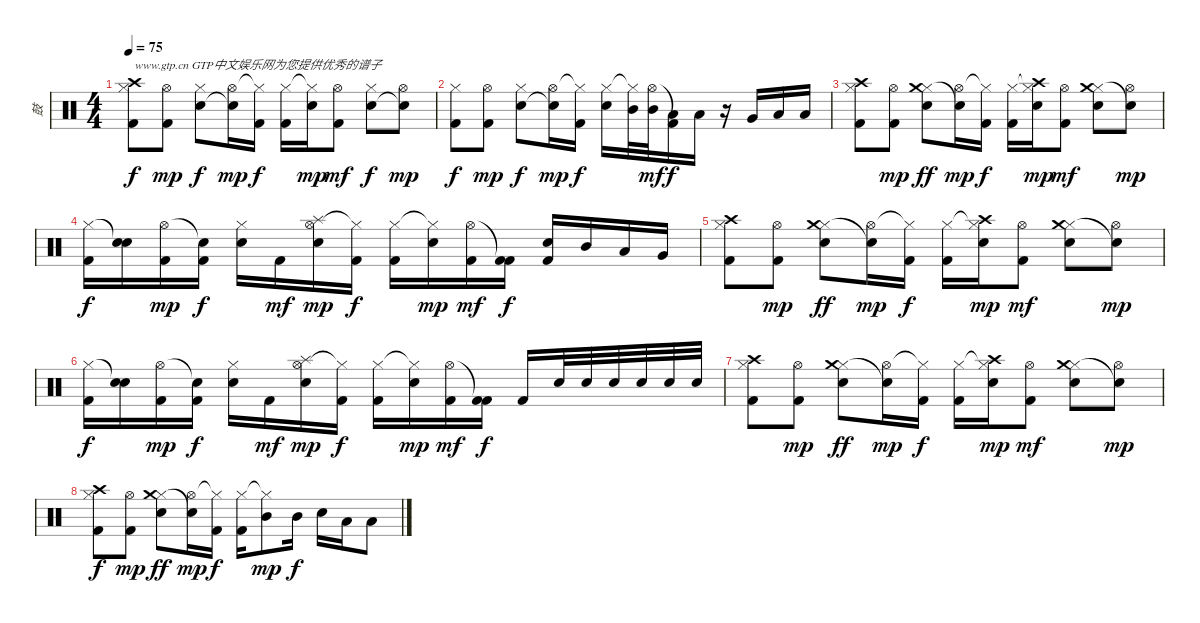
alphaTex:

\track ("鼓" "鼓") {instrument percussion}
\staff {score}
\articulation defaults
\ts (4 4)
\tempo 75
\clef neutral
\ks c
("Hi-Hat (closed)" "Crash high (hit)" "Kick (hit) 2").8{txt "www.gtp.cn GTP中文娱乐网为您提供优秀的谱子" dy f} ("Hi-Hat (open)" "Kick (hit) 2").8{dy mp} ("Hi-Hat (closed)" "Electric Snare (hit)").8{dy f} ("Hi-Hat (open)" "Snare (hit)"{t}).16{dy mp} ("Hi-Hat (closed)"{t} "Kick (hit) 2").16{dy f} ("Hi-Hat (closed)" "Kick (hit) 2").16 ("Hi-Hat (closed)"{t} "Electric Snare (hit)").16{dy mp} ("Hi-Hat (open)" "Kick (hit) 2").8{dy mf} ("Hi-Hat (closed)" "Electric Snare (hit)").8{dy f} ("Hi-Hat (open)" "Snare (hit)"{t}).8{dy mp} |
("Hi-Hat (closed)" "Kick (hit) 2").8{dy f} ("Hi-Hat (open)" "Kick (hit) 2").8{dy mp} ("Hi-Hat (closed)" "Electric Snare (hit)").8{dy f} ("Hi-Hat (open)" "Snare (hit)"{t}).16{dy mp} ("Hi-Hat (closed)"{t} "Kick (hit) 2").16{dy f} ("Hi-Hat (closed)" "Electric Snare (hit)").16 ("Hi-Hat (closed)"{t} "Mid Tom (hit)").32 ("Hi-Hat (open)" "Mid Tom (hit)").32{dy mf} ("Kick (hit) 2"{t} "Low Tom (hit)").16{dy f} "Low Tom (hit)".16 r.16 "Very Low Tom (hit)".16 "Low Floor Tom (hit)".16 "Low Floor Tom (hit)".16 |
("Hi-Hat (closed)" "Crash high (hit)" "Kick (hit) 2").8 ("Hi-Hat (open)" "Kick (hit) 2").8{dy mp} ("Hi-Hat (closed)" "Crash medium (hit)" "Electric Snare (hit)").8{dy ff} ("Hi-Hat (open)" "Snare (hit)"{t}).16{dy mp} ("Hi-Hat (closed)"{t} "Kick (hit) 2").16{dy f} ("Hi-Hat (closed)" "Kick (hit) 2").16 ("Hi-Hat (closed)"{t} "Crash high (hit)" "Electric Snare (hit)").16{dy mp} ("Hi-Hat (open)" "Kick (hit) 2").8{dy mf} ("Hi-Hat (closed)" "Crash medium (hit)" "Electric Snare (hit)").8 ("Hi-Hat (open)" "Snare (hit)"{t}).8{dy mp} |
("Hi-Hat (closed)" "Kick (hit) 2").16{dy f} ("Snare (hit)"{t} "Electric Snare (hit)").16 ("Hi-Hat (open)" "Kick (hit) 2").16{dy mp} ("Snare (hit)"{t} "Kick (hit) 2").16{dy f} ("Hi-Hat (closed)" "Electric Snare (hit)").16 "Kick (hit) 2".16{dy mf} ("Hi-Hat (open)" "Splash (hit)" "Electric Snare (hit)").16{dy mp} ("Hi-Hat (closed)"{t} "Kick (hit) 2").16{dy f} ("Hi-Hat (closed)" "Kick (hit) 2").16 ("Hi-Hat (closed)"{t} "Electric Snare (hit)").16{dy mp} ("Hi-Hat (open)" "Kick (hit) 2").16{dy mf} ("Kick (hit) 2"{t} "Kick (hit) 2").16{dy f} ("Electric Snare (hit)" "Kick (hit) 2").16 "Mid Tom (hit)".16 "Low Tom (hit)".16 "Very Low Tom (hit)".16 |
("Hi-Hat (closed)" "Crash high (hit)" "Kick (hit) 2").8 ("Hi-Hat (open)" "Kick (hit) 2").8{dy mp} ("Hi-Hat (closed)" "Crash medium (hit)" "Electric Snare (hit)").8{dy ff} ("Hi-Hat (open)" "Snare (hit)"{t}).16{dy mp} ("Hi-Hat (closed)"{t} "Kick (hit) 2").16{dy f} ("Hi-Hat (closed)" "Kick (hit) 2").16 ("Hi-Hat (closed)"{t} "Crash high (hit)" "Electric Snare (hit)").16{dy mp} ("Hi-Hat (open)" "Kick (hit) 2").8{dy mf} ("Hi-Hat (closed)" "Crash medium (hit)" "Electric Snare (hit)").8 ("Hi-Hat (open)" "Snare (hit)"{t}).8{dy mp} |
("Hi-Hat (closed)" "Kick (hit) 2").16{dy f} ("Snare (hit)"{t} "Electric Snare (hit)").16 ("Hi-Hat (open)" "Kick (hit) 2").16{dy mp} ("Snare (hit)"{t} "Kick (hit) 2").16{dy f} ("Hi-Hat (closed)" "Electric Snare (hit)").16 "Kick (hit) 2".16{dy mf} ("Hi-Hat (open)" "Splash (hit)" "Electric Snare (hit)").16{dy mp} ("Hi-Hat (closed)"{t} "Kick (hit) 2").16{dy f} ("Hi-Hat (closed)" "Kick (hit) 2").16 ("Hi-Hat (closed)"{t} "Electric Snare (hit)").16{dy mp} ("Hi-Hat (open)" "Kick (hit) 2").16{dy mf} ("Kick (hit) 2"{t} "Kick (hit) 2").16{dy f} "Kick (hit) 2".16 "Electric Snare (hit)".32 "Electric Snare (hit)".32 "Electric Snare (hit)".32 "Electric Snare (hit)".32 "Electric Snare (hit)".32 "Electric Snare (hit)".32 |
("Hi-Hat (closed)" "Crash high (hit)" "Kick (hit) 2").8 ("Hi-Hat (open)" "Kick (hit) 2").8{dy mp} ("Hi-Hat (closed)" "Crash medium (hit)" "Electric Snare (hit)").8{dy ff} ("Hi-Hat (open)" "Snare (hit)"{t}).16{dy mp} ("Hi-Hat (closed)"{t} "Kick (hit) 2").16{dy f} ("Hi-Hat (closed)" "Kick (hit) 2").16 ("Hi-Hat (closed)"{t} "Crash high (hit)" "Electric Snare (hit)").16{dy mp} ("Hi-Hat (open)" "Kick (hit) 2").8{dy mf} ("Hi-Hat (closed)" "Crash medium (hit)" "Electric Snare (hit)").8 ("Hi-Hat (open)" "Snare (hit)"{t}).8{dy mp} |
("Hi-Hat (closed)" "Crash high (hit)" "Kick (hit) 2").8{dy f} ("Hi-Hat (open)" "Kick (hit) 2").8{dy mp} ("Hi-Hat (closed)" "Crash medium (hit)" "Electric Snare (hit)").8{dy ff} ("Hi-Hat (open)" "Snare (hit)"{t}).16{dy mp} ("Hi-Hat (closed)"{t} "Kick (hit) 2").16{dy f} ("Hi-Hat (closed)" "Kick (hit) 2").16 ("Hi-Hat (closed)"{t} "Mid Tom (hit)").8{dy mp} "Mid Tom (hit)".16{dy f} "Electric Snare (hit)".16 "Low Tom (hit)".16 "Low Tom (hit)".8
